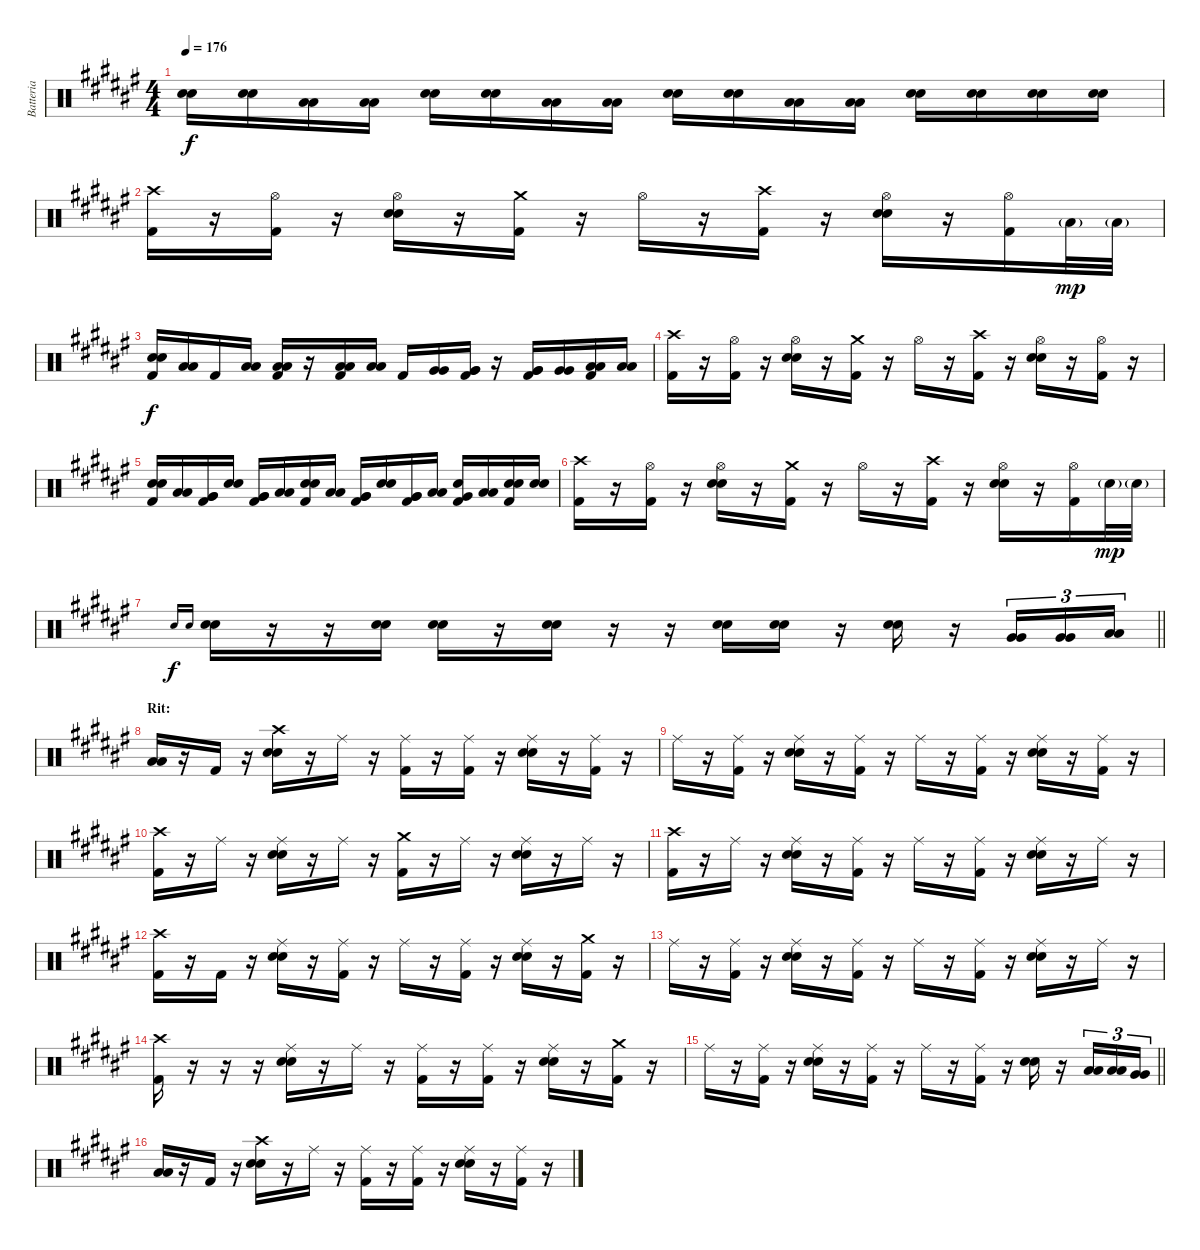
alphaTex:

\track ("Batteria" "Batteria") {instrument percussion}
\staff {score}
\articulation defaults
\ts (4 4)
\tempo 176
\clef neutral
\ks f#
("Snare (hit) 2" "Snare (hit) 2").16{dy f} ("Snare (hit) 2" "Snare (hit) 2").16 ("Low Tom (hit)" "Low Tom (hit)").16 ("Low Tom (hit)" "Low Tom (hit)").16 ("Snare (hit) 2" "Snare (hit) 2").16 ("Snare (hit) 2" "Snare (hit) 2").16 ("Low Tom (hit)" "Low Tom (hit)").16 ("Low Tom (hit)" "Low Tom (hit)").16 ("Snare (hit) 2" "Snare (hit) 2").16 ("Snare (hit) 2" "Snare (hit) 2").16 ("Low Tom (hit)" "Low Tom (hit)").16 ("Low Tom (hit)" "Low Tom (hit)").16 ("Snare (hit) 2" "Snare (hit) 2").16 ("Snare (hit) 2" "Snare (hit) 2").16 ("Snare (hit) 2" "Snare (hit) 2").16 ("Snare (hit) 2" "Snare (hit) 2").16 |
("Kick (hit) 2" "Crash high (hit)").16 r.16 ("Kick (hit) 2" "Hi-Hat (open)").16 r.16 ("Snare (hit) 2" "Snare (hit) 2" "Hi-Hat (open)").16 r.16 ("Kick (hit) 2" "Crash medium (hit)").16 r.16 "Hi-Hat (open)".16 r.16 ("Kick (hit) 2" "Crash high (hit)").16 r.16 ("Snare (hit) 2" "Snare (hit) 2" "Hi-Hat (open)").16 r.16 ("Kick (hit) 2" "Hi-Hat (open)").16 "Low Tom (hit)"{g}.32{dy mp} "Low Tom (hit)"{g}.32 |
("Kick (hit) 2" "Snare (hit) 2" "Snare (hit) 2").16{dy f} ("Low Tom (hit)" "Low Tom (hit)").16 "Kick (hit) 2".16 ("Low Tom (hit)" "Low Tom (hit)").16 ("Kick (hit) 2" "Low Tom (hit)" "Low Tom (hit)").16 r.16 ("Kick (hit) 2" "Low Tom (hit)" "Low Tom (hit)").16 ("Low Tom (hit)" "Low Tom (hit)").16 "Kick (hit) 2".16 ("Very Low Tom (hit)" "Very Low Tom (hit)").16 ("Kick (hit) 2" "Very Low Tom (hit)" "Very Low Tom (hit)").16 r.16 ("Kick (hit) 2" "Very Low Tom (hit)" "Very Low Tom (hit)").16 ("Very Low Tom (hit)" "Very Low Tom (hit)").16 ("Kick (hit) 2" "Low Floor Tom (hit)" "Low Floor Tom (hit)").16 ("Low Floor Tom (hit)" "Low Floor Tom (hit)").16 |
("Kick (hit) 2" "Crash high (hit)").16 r.16 ("Kick (hit) 2" "Hi-Hat (open)").16 r.16 ("Snare (hit) 2" "Snare (hit) 2" "Hi-Hat (open)").16 r.16 ("Kick (hit) 2" "Crash medium (hit)").16 r.16 "Hi-Hat (open)".16 r.16 ("Kick (hit) 2" "Crash high (hit)").16 r.16 ("Snare (hit) 2" "Snare (hit) 2" "Hi-Hat (open)").16 r.16 ("Kick (hit) 2" "Hi-Hat (open)").16 r.16 |
("Kick (hit) 2" "Snare (hit) 2" "Snare (hit) 2").16 ("Low Tom (hit)" "Low Tom (hit)").16 ("Kick (hit) 2" "Very Low Tom (hit)" "Very Low Tom (hit)").16 ("Snare (hit) 2" "Snare (hit) 2").16 ("Kick (hit) 2" "Very Low Tom (hit)" "Very Low Tom (hit)").16 ("Low Tom (hit)" "Low Tom (hit)").16 ("Kick (hit) 2" "Snare (hit) 2" "Snare (hit) 2").16 ("Low Tom (hit)" "Low Tom (hit)").16 ("Kick (hit) 2" "Very Low Tom (hit)" "Very Low Tom (hit)").16 ("Snare (hit) 2" "Snare (hit) 2").16 ("Kick (hit) 2" "Very Low Tom (hit)" "Very Low Tom (hit)").16 ("Low Tom (hit)" "Low Tom (hit)").16 ("Kick (hit) 2" "Snare (hit) 2" "Very Low Tom (hit)").16 ("Low Tom (hit)" "Low Tom (hit)").16 ("Kick (hit) 2" "Snare (hit) 2" "Snare (hit) 2").16 ("Snare (hit) 2" "Snare (hit) 2").16 |
("Kick (hit) 2" "Crash high (hit)").16 r.16 ("Kick (hit) 2" "Hi-Hat (open)").16 r.16 ("Snare (hit) 2" "Snare (hit) 2" "Hi-Hat (open)").16 r.16 ("Kick (hit) 2" "Crash medium (hit)").16 r.16 "Hi-Hat (open)".16 r.16 ("Kick (hit) 2" "Crash high (hit)").16 r.16 ("Snare (hit) 2" "Snare (hit) 2" "Hi-Hat (open)").16 r.16 ("Kick (hit) 2" "Hi-Hat (open)").16 "Snare (hit) 2"{g}.32{dy mp} "Snare (hit) 2"{g}.32 |
\barLineRight lightlight "Snare (hit) 2".16{gr onbeat dy f} "Snare (hit) 2".16{gr onbeat}
("Snare (hit) 2" "Snare (hit) 2").16 r.16 r.16 ("Snare (hit) 2" "Snare (hit) 2").16 ("Snare (hit) 2" "Snare (hit) 2").16 r.16 ("Snare (hit) 2" "Snare (hit) 2").16 r.16 r.16 ("Snare (hit) 2" "Snare (hit) 2").16 ("Snare (hit) 2" "Snare (hit) 2").16 r.16 ("Snare (hit) 2" "Snare (hit) 2").16 r.16 ("Very Low Tom (hit)" "Very Low Tom (hit)").16{tu (3 2)} ("Very Low Tom (hit)" "Very Low Tom (hit)").16{tu (3 2)} ("Low Floor Tom (hit)" "Low Floor Tom (hit)").16{tu (3 2)} |
\section ("" "Rit:")
("Low Floor Tom (hit)" "Low Floor Tom (hit)").16 r.16 "Kick (hit) 2".16 r.16 ("Snare (hit) 2" "Snare (hit) 2" "Crash high (hit)").16 r.16 "Ride (middle)".16 r.16 ("Kick (hit) 2" "Ride (middle)").16 r.16 ("Kick (hit) 2" "Ride (middle)").16 r.16 ("Snare (hit) 2" "Snare (hit) 2" "Ride (middle)").16 r.16 ("Kick (hit) 2" "Ride (middle)").16 r.16 |
"Ride (middle)".16 r.16 ("Kick (hit) 2" "Ride (middle)").16 r.16 ("Snare (hit) 2" "Snare (hit) 2" "Ride (middle)").16 r.16 ("Kick (hit) 2" "Ride (middle)").16 r.16 "Ride (middle)".16 r.16 ("Kick (hit) 2" "Ride (middle)").16 r.16 ("Snare (hit) 2" "Snare (hit) 2" "Ride (middle)").16 r.16 ("Kick (hit) 2" "Ride (middle)").16 r.16 |
("Kick (hit) 2" "Crash high (hit)").16 r.16 "Ride (middle)".16 r.16 ("Snare (hit) 2" "Snare (hit) 2" "Ride (middle)").16 r.16 "Ride (middle)".16 r.16 ("Kick (hit) 2" "Crash medium (hit)").16 r.16 "Ride (middle)".16 r.16 ("Snare (hit) 2" "Snare (hit) 2" "Ride (middle)").16 r.16 "Ride (middle)".16 r.16 |
("Kick (hit) 2" "Crash high (hit)").16 r.16 "Ride (middle)".16 r.16 ("Snare (hit) 2" "Snare (hit) 2" "Ride (middle)").16 r.16 ("Kick (hit) 2" "Ride (middle)").16 r.16 "Ride (middle)".16 r.16 ("Kick (hit) 2" "Ride (middle)").16 r.16 ("Snare (hit) 2" "Snare (hit) 2" "Ride (middle)").16 r.16 "Ride (middle)".16 r.16 |
("Kick (hit) 2" "Crash high (hit)").16 r.16 "Kick (hit) 2".16 r.16 ("Snare (hit) 2" "Snare (hit) 2" "Ride (middle)").16 r.16 ("Kick (hit) 2" "Ride (middle)").16 r.16 "Ride (middle)".16 r.16 ("Kick (hit) 2" "Ride (middle)").16 r.16 ("Snare (hit) 2" "Snare (hit) 2" "Ride (middle)").16 r.16 ("Kick (hit) 2" "Crash medium (hit)").16 r.16 |
"Ride (middle)".16 r.16 ("Kick (hit) 2" "Ride (middle)").16 r.16 ("Snare (hit) 2" "Snare (hit) 2" "Ride (middle)").16 r.16 ("Kick (hit) 2" "Ride (middle)").16 r.16 "Ride (middle)".16 r.16 ("Kick (hit) 2" "Ride (middle)").16 r.16 ("Snare (hit) 2" "Snare (hit) 2" "Ride (middle)").16 r.16 "Ride (middle)".16 r.16 |
("Kick (hit) 2" "Crash high (hit)").16 r.16 r.16 r.16 ("Snare (hit) 2" "Snare (hit) 2" "Ride (middle)").16 r.16 "Ride (middle)".16 r.16 ("Kick (hit) 2" "Ride (middle)").16 r.16 ("Kick (hit) 2" "Ride (middle)").16 r.16 ("Snare (hit) 2" "Snare (hit) 2" "Ride (middle)").16 r.16 ("Kick (hit) 2" "Crash medium (hit)").16 r.16 |
\barLineRight lightlight "Ride (middle)".16
r.16 ("Kick (hit) 2" "Ride (middle)").16 r.16 ("Snare (hit) 2" "Snare (hit) 2" "Ride (middle)").16 r.16 ("Kick (hit) 2" "Ride (middle)").16 r.16 "Ride (middle)".16 r.16 ("Kick (hit) 2" "Ride (middle)").16 r.16 ("Snare (hit) 2" "Snare (hit) 2").16 r.16 ("Low Tom (hit)" "Low Tom (hit)").16{tu (3 2)} ("Low Tom (hit)" "Low Tom (hit)").16{tu (3 2)} ("Very Low Tom (hit)" "Very Low Tom (hit)").16{tu (3 2)} |
("Low Floor Tom (hit)" "Low Floor Tom (hit)").16 r.16 "Kick (hit) 2".16 r.16 ("Snare (hit) 2" "Snare (hit) 2" "Crash high (hit)").16 r.16 "Ride (middle)".16 r.16 ("Kick (hit) 2" "Ride (middle)").16 r.16 ("Kick (hit) 2" "Ride (middle)").16 r.16 ("Snare (hit) 2" "Snare (hit) 2" "Ride (middle)").16 r.16 ("Kick (hit) 2" "Ride (middle)").16 r.16
